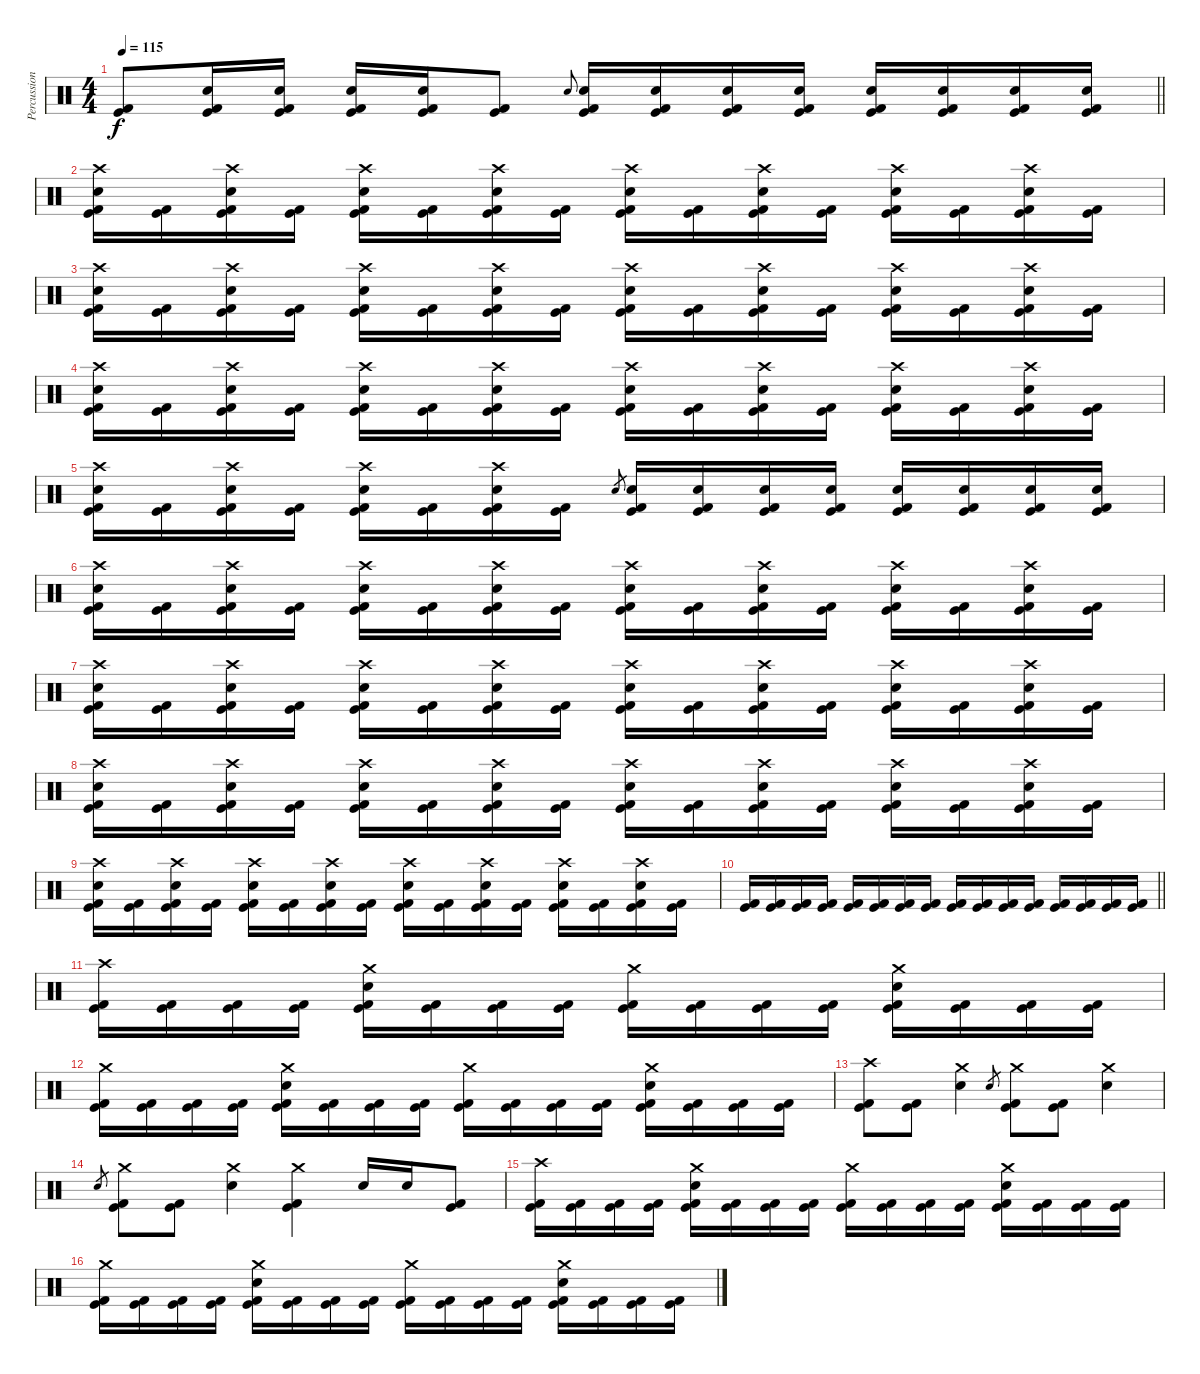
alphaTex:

\track ("Percussion" "Percussion") {instrument percussion}
\staff {score}
\articulation defaults
\ts (4 4)
\tempo 115
\clef neutral
\barLineRight lightlight
\ks c
("Kick (hit)" "Kick (hit) 2").8{dy f} ("Electric Snare (hit)" "Kick (hit)" "Kick (hit) 2").16 ("Electric Snare (hit)" "Kick (hit)" "Kick (hit) 2").16 ("Electric Snare (hit)" "Kick (hit)" "Kick (hit) 2").16 ("Electric Snare (hit)" "Kick (hit)" "Kick (hit) 2").16 ("Kick (hit)" "Kick (hit) 2").8 "Electric Snare (hit)".8{gr onbeat} ("Electric Snare (hit)" "Kick (hit)" "Kick (hit) 2").16 ("Electric Snare (hit)" "Kick (hit)" "Kick (hit) 2").16 ("Electric Snare (hit)" "Kick (hit)" "Kick (hit) 2").16 ("Electric Snare (hit)" "Kick (hit)" "Kick (hit) 2").16 ("Electric Snare (hit)" "Kick (hit)" "Kick (hit) 2").16 ("Electric Snare (hit)" "Kick (hit)" "Kick (hit) 2").16 ("Electric Snare (hit)" "Kick (hit)" "Kick (hit) 2").16 ("Electric Snare (hit)" "Kick (hit)" "Kick (hit) 2").16 |
\section ("" "")
("Crash high (hit)" "Electric Snare (hit)" "Kick (hit)" "Kick (hit) 2").16 ("Kick (hit)" "Kick (hit) 2").16 ("Crash high (hit)" "Electric Snare (hit)" "Kick (hit)" "Kick (hit) 2").16 ("Kick (hit)" "Kick (hit) 2").16 ("Crash high (hit)" "Electric Snare (hit)" "Kick (hit)" "Kick (hit) 2").16 ("Kick (hit)" "Kick (hit) 2").16 ("Crash high (hit)" "Electric Snare (hit)" "Kick (hit)" "Kick (hit) 2").16 ("Kick (hit)" "Kick (hit) 2").16 ("Crash high (hit)" "Electric Snare (hit)" "Kick (hit)" "Kick (hit) 2").16 ("Kick (hit)" "Kick (hit) 2").16 ("Crash high (hit)" "Electric Snare (hit)" "Kick (hit)" "Kick (hit) 2").16 ("Kick (hit)" "Kick (hit) 2").16 ("Crash high (hit)" "Electric Snare (hit)" "Kick (hit)" "Kick (hit) 2").16 ("Kick (hit)" "Kick (hit) 2").16 ("Crash high (hit)" "Electric Snare (hit)" "Kick (hit)" "Kick (hit) 2").16 ("Kick (hit)" "Kick (hit) 2").16 |
("Crash high (hit)" "Electric Snare (hit)" "Kick (hit)" "Kick (hit) 2").16 ("Kick (hit)" "Kick (hit) 2").16 ("Crash high (hit)" "Electric Snare (hit)" "Kick (hit)" "Kick (hit) 2").16 ("Kick (hit)" "Kick (hit) 2").16 ("Crash high (hit)" "Electric Snare (hit)" "Kick (hit)" "Kick (hit) 2").16 ("Kick (hit)" "Kick (hit) 2").16 ("Crash high (hit)" "Electric Snare (hit)" "Kick (hit)" "Kick (hit) 2").16 ("Kick (hit)" "Kick (hit) 2").16 ("Crash high (hit)" "Electric Snare (hit)" "Kick (hit)" "Kick (hit) 2").16 ("Kick (hit)" "Kick (hit) 2").16 ("Crash high (hit)" "Electric Snare (hit)" "Kick (hit)" "Kick (hit) 2").16 ("Kick (hit)" "Kick (hit) 2").16 ("Crash high (hit)" "Electric Snare (hit)" "Kick (hit)" "Kick (hit) 2").16 ("Kick (hit)" "Kick (hit) 2").16 ("Crash high (hit)" "Electric Snare (hit)" "Kick (hit)" "Kick (hit) 2").16 ("Kick (hit)" "Kick (hit) 2").16 |
("Crash high (hit)" "Electric Snare (hit)" "Kick (hit)" "Kick (hit) 2").16 ("Kick (hit)" "Kick (hit) 2").16 ("Crash high (hit)" "Electric Snare (hit)" "Kick (hit)" "Kick (hit) 2").16 ("Kick (hit)" "Kick (hit) 2").16 ("Crash high (hit)" "Electric Snare (hit)" "Kick (hit)" "Kick (hit) 2").16 ("Kick (hit)" "Kick (hit) 2").16 ("Crash high (hit)" "Electric Snare (hit)" "Kick (hit)" "Kick (hit) 2").16 ("Kick (hit)" "Kick (hit) 2").16 ("Crash high (hit)" "Electric Snare (hit)" "Kick (hit)" "Kick (hit) 2").16 ("Kick (hit)" "Kick (hit) 2").16 ("Crash high (hit)" "Electric Snare (hit)" "Kick (hit)" "Kick (hit) 2").16 ("Kick (hit)" "Kick (hit) 2").16 ("Crash high (hit)" "Electric Snare (hit)" "Kick (hit)" "Kick (hit) 2").16 ("Kick (hit)" "Kick (hit) 2").16 ("Crash high (hit)" "Electric Snare (hit)" "Kick (hit)" "Kick (hit) 2").16 ("Kick (hit)" "Kick (hit) 2").16 |
("Crash high (hit)" "Electric Snare (hit)" "Kick (hit)" "Kick (hit) 2").16 ("Kick (hit)" "Kick (hit) 2").16 ("Crash high (hit)" "Electric Snare (hit)" "Kick (hit)" "Kick (hit) 2").16 ("Kick (hit)" "Kick (hit) 2").16 ("Crash high (hit)" "Electric Snare (hit)" "Kick (hit)" "Kick (hit) 2").16 ("Kick (hit)" "Kick (hit) 2").16 ("Crash high (hit)" "Electric Snare (hit)" "Kick (hit)" "Kick (hit) 2").16 ("Kick (hit)" "Kick (hit) 2").16 "Electric Snare (hit)".8{gr} ("Electric Snare (hit)" "Kick (hit)" "Kick (hit) 2").16 ("Electric Snare (hit)" "Kick (hit)" "Kick (hit) 2").16 ("Electric Snare (hit)" "Kick (hit)" "Kick (hit) 2").16 ("Electric Snare (hit)" "Kick (hit)" "Kick (hit) 2").16 ("Electric Snare (hit)" "Kick (hit)" "Kick (hit) 2").16 ("Electric Snare (hit)" "Kick (hit)" "Kick (hit) 2").16 ("Electric Snare (hit)" "Kick (hit)" "Kick (hit) 2").16 ("Electric Snare (hit)" "Kick (hit)" "Kick (hit) 2").16 |
("Crash high (hit)" "Electric Snare (hit)" "Kick (hit)" "Kick (hit) 2").16 ("Kick (hit)" "Kick (hit) 2").16 ("Crash high (hit)" "Electric Snare (hit)" "Kick (hit)" "Kick (hit) 2").16 ("Kick (hit)" "Kick (hit) 2").16 ("Crash high (hit)" "Electric Snare (hit)" "Kick (hit)" "Kick (hit) 2").16 ("Kick (hit)" "Kick (hit) 2").16 ("Crash high (hit)" "Electric Snare (hit)" "Kick (hit)" "Kick (hit) 2").16 ("Kick (hit)" "Kick (hit) 2").16 ("Crash high (hit)" "Electric Snare (hit)" "Kick (hit)" "Kick (hit) 2").16 ("Kick (hit)" "Kick (hit) 2").16 ("Crash high (hit)" "Electric Snare (hit)" "Kick (hit)" "Kick (hit) 2").16 ("Kick (hit)" "Kick (hit) 2").16 ("Crash high (hit)" "Electric Snare (hit)" "Kick (hit)" "Kick (hit) 2").16 ("Kick (hit)" "Kick (hit) 2").16 ("Crash high (hit)" "Electric Snare (hit)" "Kick (hit)" "Kick (hit) 2").16 ("Kick (hit)" "Kick (hit) 2").16 |
("Crash high (hit)" "Electric Snare (hit)" "Kick (hit)" "Kick (hit) 2").16 ("Kick (hit)" "Kick (hit) 2").16 ("Crash high (hit)" "Electric Snare (hit)" "Kick (hit)" "Kick (hit) 2").16 ("Kick (hit)" "Kick (hit) 2").16 ("Crash high (hit)" "Electric Snare (hit)" "Kick (hit)" "Kick (hit) 2").16 ("Kick (hit)" "Kick (hit) 2").16 ("Crash high (hit)" "Electric Snare (hit)" "Kick (hit)" "Kick (hit) 2").16 ("Kick (hit)" "Kick (hit) 2").16 ("Crash high (hit)" "Electric Snare (hit)" "Kick (hit)" "Kick (hit) 2").16 ("Kick (hit)" "Kick (hit) 2").16 ("Crash high (hit)" "Electric Snare (hit)" "Kick (hit)" "Kick (hit) 2").16 ("Kick (hit)" "Kick (hit) 2").16 ("Crash high (hit)" "Electric Snare (hit)" "Kick (hit)" "Kick (hit) 2").16 ("Kick (hit)" "Kick (hit) 2").16 ("Crash high (hit)" "Electric Snare (hit)" "Kick (hit)" "Kick (hit) 2").16 ("Kick (hit)" "Kick (hit) 2").16 |
("Crash high (hit)" "Electric Snare (hit)" "Kick (hit)" "Kick (hit) 2").16 ("Kick (hit)" "Kick (hit) 2").16 ("Crash high (hit)" "Electric Snare (hit)" "Kick (hit)" "Kick (hit) 2").16 ("Kick (hit)" "Kick (hit) 2").16 ("Crash high (hit)" "Electric Snare (hit)" "Kick (hit)" "Kick (hit) 2").16 ("Kick (hit)" "Kick (hit) 2").16 ("Crash high (hit)" "Electric Snare (hit)" "Kick (hit)" "Kick (hit) 2").16 ("Kick (hit)" "Kick (hit) 2").16 ("Crash high (hit)" "Electric Snare (hit)" "Kick (hit)" "Kick (hit) 2").16 ("Kick (hit)" "Kick (hit) 2").16 ("Crash high (hit)" "Electric Snare (hit)" "Kick (hit)" "Kick (hit) 2").16 ("Kick (hit)" "Kick (hit) 2").16 ("Crash high (hit)" "Electric Snare (hit)" "Kick (hit)" "Kick (hit) 2").16 ("Kick (hit)" "Kick (hit) 2").16 ("Crash high (hit)" "Electric Snare (hit)" "Kick (hit)" "Kick (hit) 2").16 ("Kick (hit)" "Kick (hit) 2").16 |
("Crash high (hit)" "Electric Snare (hit)" "Kick (hit)" "Kick (hit) 2").16 ("Kick (hit)" "Kick (hit) 2").16 ("Crash high (hit)" "Electric Snare (hit)" "Kick (hit)" "Kick (hit) 2").16 ("Kick (hit)" "Kick (hit) 2").16 ("Crash high (hit)" "Electric Snare (hit)" "Kick (hit)" "Kick (hit) 2").16 ("Kick (hit)" "Kick (hit) 2").16 ("Crash high (hit)" "Electric Snare (hit)" "Kick (hit)" "Kick (hit) 2").16 ("Kick (hit)" "Kick (hit) 2").16 ("Crash high (hit)" "Electric Snare (hit)" "Kick (hit)" "Kick (hit) 2").16 ("Kick (hit)" "Kick (hit) 2").16 ("Crash high (hit)" "Electric Snare (hit)" "Kick (hit)" "Kick (hit) 2").16 ("Kick (hit)" "Kick (hit) 2").16 ("Crash high (hit)" "Electric Snare (hit)" "Kick (hit)" "Kick (hit) 2").16 ("Kick (hit)" "Kick (hit) 2").16 ("Crash high (hit)" "Electric Snare (hit)" "Kick (hit)" "Kick (hit) 2").16 ("Kick (hit)" "Kick (hit) 2").16 |
\barLineRight lightlight
("Kick (hit)" "Kick (hit) 2").16 ("Kick (hit)" "Kick (hit) 2").16 ("Kick (hit)" "Kick (hit) 2").16 ("Kick (hit)" "Kick (hit) 2").16 ("Kick (hit)" "Kick (hit) 2").16 ("Kick (hit)" "Kick (hit) 2").16 ("Kick (hit)" "Kick (hit) 2").16 ("Kick (hit)" "Kick (hit) 2").16 ("Kick (hit)" "Kick (hit) 2").16 ("Kick (hit)" "Kick (hit) 2").16 ("Kick (hit)" "Kick (hit) 2").16 ("Kick (hit)" "Kick (hit) 2").16 ("Kick (hit)" "Kick (hit) 2").16 ("Kick (hit)" "Kick (hit) 2").16 ("Kick (hit)" "Kick (hit) 2").16 ("Kick (hit)" "Kick (hit) 2").16 |
\section ("" "")
("Crash high (hit)" "Kick (hit)" "Kick (hit) 2").16 ("Kick (hit)" "Kick (hit) 2").16 ("Kick (hit)" "Kick (hit) 2").16 ("Kick (hit)" "Kick (hit) 2").16 ("Crash medium (hit)" "Electric Snare (hit)" "Kick (hit)" "Kick (hit) 2").16 ("Kick (hit)" "Kick (hit) 2").16 ("Kick (hit)" "Kick (hit) 2").16 ("Kick (hit)" "Kick (hit) 2").16 ("Crash medium (hit)" "Kick (hit)" "Kick (hit) 2").16 ("Kick (hit)" "Kick (hit) 2").16 ("Kick (hit)" "Kick (hit) 2").16 ("Kick (hit)" "Kick (hit) 2").16 ("Crash medium (hit)" "Electric Snare (hit)" "Kick (hit)" "Kick (hit) 2").16 ("Kick (hit)" "Kick (hit) 2").16 ("Kick (hit)" "Kick (hit) 2").16 ("Kick (hit)" "Kick (hit) 2").16 |
("Crash medium (hit)" "Kick (hit)" "Kick (hit) 2").16 ("Kick (hit)" "Kick (hit) 2").16 ("Kick (hit)" "Kick (hit) 2").16 ("Kick (hit)" "Kick (hit) 2").16 ("Crash medium (hit)" "Electric Snare (hit)" "Kick (hit)" "Kick (hit) 2").16 ("Kick (hit)" "Kick (hit) 2").16 ("Kick (hit)" "Kick (hit) 2").16 ("Kick (hit)" "Kick (hit) 2").16 ("Crash medium (hit)" "Kick (hit)" "Kick (hit) 2").16 ("Kick (hit)" "Kick (hit) 2").16 ("Kick (hit)" "Kick (hit) 2").16 ("Kick (hit)" "Kick (hit) 2").16 ("Crash medium (hit)" "Electric Snare (hit)" "Kick (hit)" "Kick (hit) 2").16 ("Kick (hit)" "Kick (hit) 2").16 ("Kick (hit)" "Kick (hit) 2").16 ("Kick (hit)" "Kick (hit) 2").16 |
("Crash high (hit)" "Kick (hit)" "Kick (hit) 2").8 ("Kick (hit)" "Kick (hit) 2").8 ("Crash medium (hit)" "Electric Snare (hit)").4 "Electric Snare (hit)".8{gr} ("Crash medium (hit)" "Kick (hit)" "Kick (hit) 2").8 ("Kick (hit)" "Kick (hit) 2").8 ("Crash medium (hit)" "Electric Snare (hit)").4 |
"Electric Snare (hit)".8{gr} ("Crash medium (hit)" "Kick (hit)" "Kick (hit) 2").8 ("Kick (hit)" "Kick (hit) 2").8 ("Crash medium (hit)" "Electric Snare (hit)").4 ("Crash medium (hit)" "Kick (hit)" "Kick (hit) 2").4 "Electric Snare (hit)".16 "Electric Snare (hit)".16 ("Kick (hit)" "Kick (hit) 2").8 |
("Crash high (hit)" "Kick (hit)" "Kick (hit) 2").16 ("Kick (hit)" "Kick (hit) 2").16 ("Kick (hit)" "Kick (hit) 2").16 ("Kick (hit)" "Kick (hit) 2").16 ("Crash medium (hit)" "Electric Snare (hit)" "Kick (hit)" "Kick (hit) 2").16 ("Kick (hit)" "Kick (hit) 2").16 ("Kick (hit)" "Kick (hit) 2").16 ("Kick (hit)" "Kick (hit) 2").16 ("Crash medium (hit)" "Kick (hit)" "Kick (hit) 2").16 ("Kick (hit)" "Kick (hit) 2").16 ("Kick (hit)" "Kick (hit) 2").16 ("Kick (hit)" "Kick (hit) 2").16 ("Crash medium (hit)" "Electric Snare (hit)" "Kick (hit)" "Kick (hit) 2").16 ("Kick (hit)" "Kick (hit) 2").16 ("Kick (hit)" "Kick (hit) 2").16 ("Kick (hit)" "Kick (hit) 2").16 |
("Crash medium (hit)" "Kick (hit)" "Kick (hit) 2").16 ("Kick (hit)" "Kick (hit) 2").16 ("Kick (hit)" "Kick (hit) 2").16 ("Kick (hit)" "Kick (hit) 2").16 ("Crash medium (hit)" "Electric Snare (hit)" "Kick (hit)" "Kick (hit) 2").16 ("Kick (hit)" "Kick (hit) 2").16 ("Kick (hit)" "Kick (hit) 2").16 ("Kick (hit)" "Kick (hit) 2").16 ("Crash medium (hit)" "Kick (hit)" "Kick (hit) 2").16 ("Kick (hit)" "Kick (hit) 2").16 ("Kick (hit)" "Kick (hit) 2").16 ("Kick (hit)" "Kick (hit) 2").16 ("Crash medium (hit)" "Electric Snare (hit)" "Kick (hit)" "Kick (hit) 2").16 ("Kick (hit)" "Kick (hit) 2").16 ("Kick (hit)" "Kick (hit) 2").16 ("Kick (hit)" "Kick (hit) 2").16
